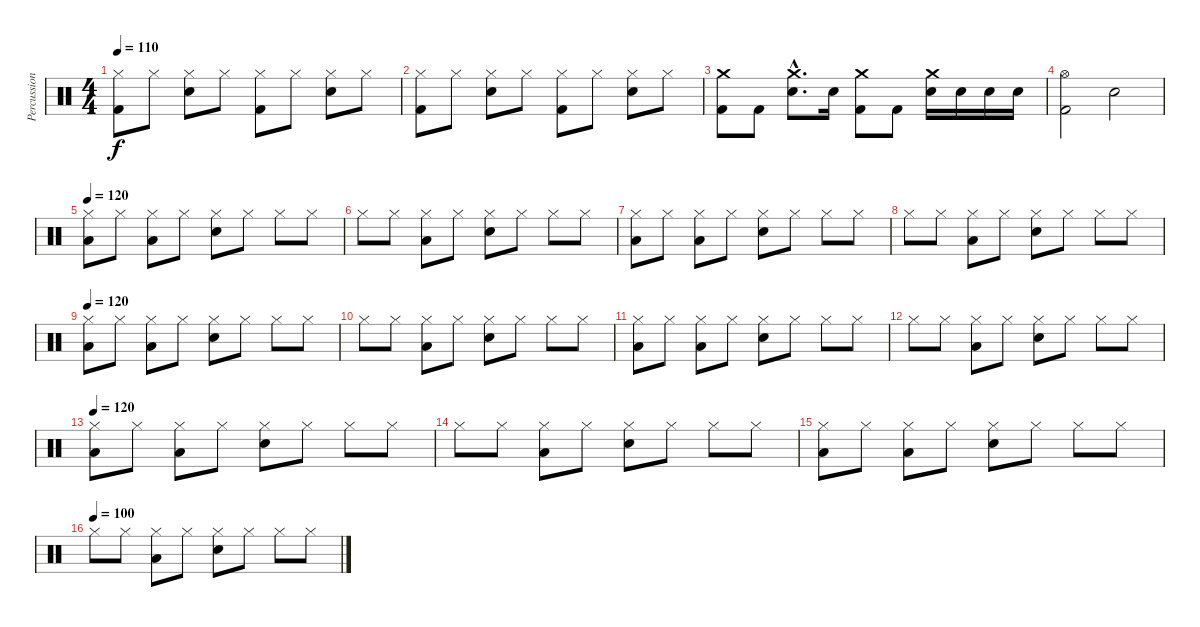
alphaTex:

\track ("Percussions" "Percussion") {instrument percussion}
\staff {score}
\articulation defaults
\ts (4 4)
\tempo 110
\clef neutral
\ks c
("Kick (hit) 2" "Hi-Hat (closed)").8{dy f} "Hi-Hat (closed)".8 ("Snare (hit) 2" "Hi-Hat (closed)").8 "Hi-Hat (closed)".8 ("Kick (hit) 2" "Hi-Hat (closed)").8 "Hi-Hat (closed)".8 ("Snare (hit) 2" "Hi-Hat (closed)").8 "Hi-Hat (closed)".8 |
("Kick (hit) 2" "Hi-Hat (closed)").8 "Hi-Hat (closed)".8 ("Snare (hit) 2" "Hi-Hat (closed)").8 "Hi-Hat (closed)".8 ("Kick (hit) 2" "Hi-Hat (closed)").8 "Hi-Hat (closed)".8 ("Snare (hit) 2" "Hi-Hat (closed)").8 "Hi-Hat (closed)".8 |
("Crash medium (hit)" "Kick (hit) 2").8 "Kick (hit) 2".8 ("Crash medium (hit)"{hac} "Snare (hit) 2"{hac}).8{d} "Snare (hit) 2".16 ("Crash medium (hit)" "Kick (hit) 2").8 "Kick (hit) 2".8 ("Crash medium (hit)" "Snare (hit) 2").16 "Snare (hit) 2".16 "Snare (hit) 2".16 "Snare (hit) 2".16 |
("Hi-Hat (open)" "Kick (hit) 2").2 "Snare (hit) 2".2 |
\tempo 120
("Hi-Hat (closed)" "Low Tom (hit)").8 "Hi-Hat (closed)".8 ("Hi-Hat (closed)" "Low Tom (hit)").8 "Hi-Hat (closed)".8 ("Hi-Hat (closed)" "Snare (hit) 2").8 "Hi-Hat (closed)".8 "Hi-Hat (closed)".8 "Hi-Hat (closed)".8 |
"Hi-Hat (closed)".8 "Hi-Hat (closed)".8 ("Hi-Hat (closed)" "Low Tom (hit)").8 "Hi-Hat (closed)".8 ("Hi-Hat (closed)" "Snare (hit) 2").8 "Hi-Hat (closed)".8 "Hi-Hat (closed)".8 "Hi-Hat (closed)".8 |
("Hi-Hat (closed)" "Low Tom (hit)").8 "Hi-Hat (closed)".8 ("Hi-Hat (closed)" "Low Tom (hit)").8 "Hi-Hat (closed)".8 ("Hi-Hat (closed)" "Snare (hit) 2").8 "Hi-Hat (closed)".8 "Hi-Hat (closed)".8 "Hi-Hat (closed)".8 |
"Hi-Hat (closed)".8 "Hi-Hat (closed)".8 ("Hi-Hat (closed)" "Low Tom (hit)").8 "Hi-Hat (closed)".8 ("Hi-Hat (closed)" "Snare (hit) 2").8 "Hi-Hat (closed)".8 "Hi-Hat (closed)".8 "Hi-Hat (closed)".8 |
\tempo 120
("Hi-Hat (closed)" "Low Tom (hit)").8 "Hi-Hat (closed)".8 ("Hi-Hat (closed)" "Low Tom (hit)").8 "Hi-Hat (closed)".8 ("Hi-Hat (closed)" "Snare (hit) 2").8 "Hi-Hat (closed)".8 "Hi-Hat (closed)".8 "Hi-Hat (closed)".8 |
"Hi-Hat (closed)".8 "Hi-Hat (closed)".8 ("Hi-Hat (closed)" "Low Tom (hit)").8 "Hi-Hat (closed)".8 ("Hi-Hat (closed)" "Snare (hit) 2").8 "Hi-Hat (closed)".8 "Hi-Hat (closed)".8 "Hi-Hat (closed)".8 |
("Hi-Hat (closed)" "Low Tom (hit)").8 "Hi-Hat (closed)".8 ("Hi-Hat (closed)" "Low Tom (hit)").8 "Hi-Hat (closed)".8 ("Hi-Hat (closed)" "Snare (hit) 2").8 "Hi-Hat (closed)".8 "Hi-Hat (closed)".8 "Hi-Hat (closed)".8 |
"Hi-Hat (closed)".8 "Hi-Hat (closed)".8 ("Hi-Hat (closed)" "Low Tom (hit)").8 "Hi-Hat (closed)".8 ("Hi-Hat (closed)" "Snare (hit) 2").8 "Hi-Hat (closed)".8 "Hi-Hat (closed)".8 "Hi-Hat (closed)".8 |
\tempo 120
("Hi-Hat (closed)" "Low Tom (hit)").8 "Hi-Hat (closed)".8 ("Hi-Hat (closed)" "Low Tom (hit)").8 "Hi-Hat (closed)".8 ("Hi-Hat (closed)" "Snare (hit) 2").8 "Hi-Hat (closed)".8 "Hi-Hat (closed)".8 "Hi-Hat (closed)".8 |
"Hi-Hat (closed)".8 "Hi-Hat (closed)".8 ("Hi-Hat (closed)" "Low Tom (hit)").8 "Hi-Hat (closed)".8 ("Hi-Hat (closed)" "Snare (hit) 2").8 "Hi-Hat (closed)".8 "Hi-Hat (closed)".8 "Hi-Hat (closed)".8 |
("Hi-Hat (closed)" "Low Tom (hit)").8 "Hi-Hat (closed)".8 ("Hi-Hat (closed)" "Low Tom (hit)").8 "Hi-Hat (closed)".8 ("Hi-Hat (closed)" "Snare (hit) 2").8 "Hi-Hat (closed)".8 "Hi-Hat (closed)".8 "Hi-Hat (closed)".8 |
\tempo (100)
"Hi-Hat (closed)".8 "Hi-Hat (closed)".8 ("Hi-Hat (closed)" "Low Tom (hit)").8 "Hi-Hat (closed)".8 ("Hi-Hat (closed)" "Snare (hit) 2").8 "Hi-Hat (closed)".8 "Hi-Hat (closed)".8 "Hi-Hat (closed)".8
